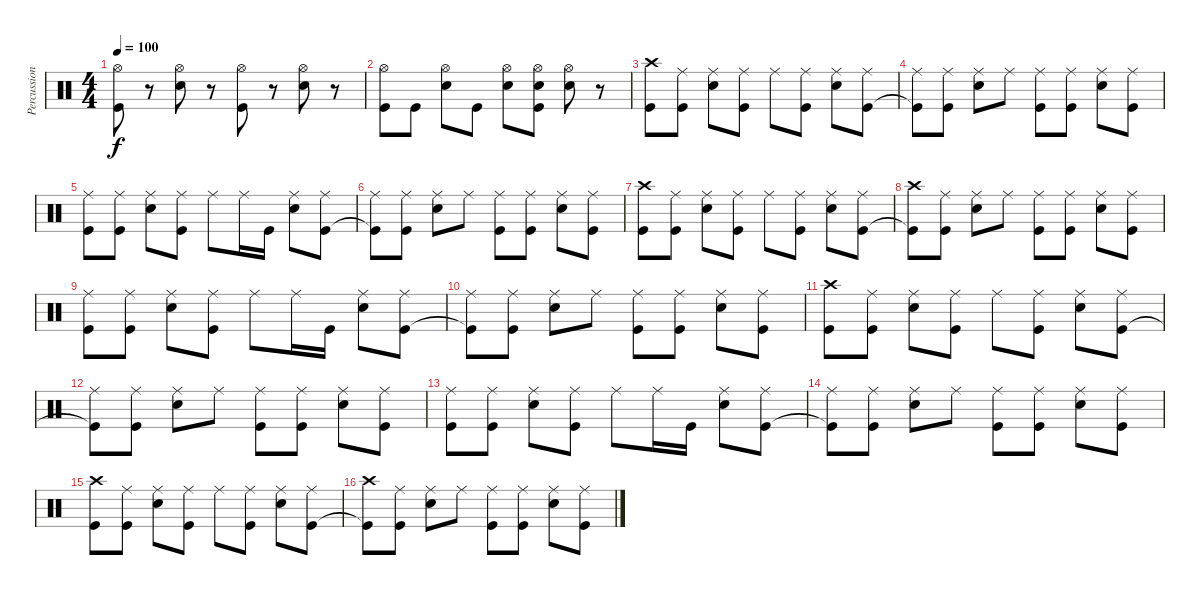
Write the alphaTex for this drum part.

\track ("Percussion" "Percussion") {instrument percussion}
\staff {score}
\articulation defaults
\ts (4 4)
\tempo 100
\clef neutral
\ks c
("Hi-Hat (open)" "Kick (hit)").8{dy f} r.8 ("Hi-Hat (open)" "Electric Snare (hit)").8 r.8 ("Hi-Hat (open)" "Kick (hit)").8 r.8 ("Hi-Hat (open)" "Electric Snare (hit)").8 r.8 |
("Hi-Hat (open)" "Kick (hit)").8 "Kick (hit)".8 ("Hi-Hat (open)" "Electric Snare (hit)").8 "Kick (hit)".8 ("Hi-Hat (open)" "Electric Snare (hit)").8 ("Hi-Hat (open)" "Electric Snare (hit)" "Kick (hit)").8 ("Hi-Hat (open)" "Electric Snare (hit)").8 r.8 |
("Crash high (hit)" "Kick (hit)").8 ("Ride (middle)" "Kick (hit)").8 ("Ride (middle)" "Electric Snare (hit)").8 ("Ride (middle)" "Kick (hit)").8 "Ride (middle)".8 ("Ride (middle)" "Kick (hit)").8 ("Ride (middle)" "Electric Snare (hit)").8 ("Ride (middle)" "Kick (hit)").8 |
("Ride (middle)" "Kick (hit)"{t}).8 ("Ride (middle)" "Kick (hit)").8 ("Ride (middle)" "Electric Snare (hit)").8 "Ride (middle)".8 ("Ride (middle)" "Kick (hit)").8 ("Ride (middle)" "Kick (hit)").8 ("Ride (middle)" "Electric Snare (hit)").8 ("Ride (middle)" "Kick (hit)").8 |
("Ride (middle)" "Kick (hit)").8 ("Ride (middle)" "Kick (hit)").8 ("Ride (middle)" "Electric Snare (hit)").8 ("Ride (middle)" "Kick (hit)").8 "Ride (middle)".8 "Ride (middle)".16 "Kick (hit)".16 ("Ride (middle)" "Electric Snare (hit)").8 ("Ride (middle)" "Kick (hit)").8 |
("Ride (middle)" "Kick (hit)"{t}).8 ("Ride (middle)" "Kick (hit)").8 ("Ride (middle)" "Electric Snare (hit)").8 "Ride (middle)".8 ("Ride (middle)" "Kick (hit)").8 ("Ride (middle)" "Kick (hit)").8 ("Ride (middle)" "Electric Snare (hit)").8 ("Ride (middle)" "Kick (hit)").8 |
("Crash high (hit)" "Kick (hit)").8 ("Ride (middle)" "Kick (hit)").8 ("Ride (middle)" "Electric Snare (hit)").8 ("Ride (middle)" "Kick (hit)").8 "Ride (middle)".8 ("Ride (middle)" "Kick (hit)").8 ("Ride (middle)" "Electric Snare (hit)").8 ("Ride (middle)" "Kick (hit)").8 |
("Crash high (hit)" "Kick (hit)"{t}).8 ("Ride (middle)" "Kick (hit)").8 ("Ride (middle)" "Electric Snare (hit)").8 "Ride (middle)".8 ("Ride (middle)" "Kick (hit)").8 ("Ride (middle)" "Kick (hit)").8 ("Ride (middle)" "Electric Snare (hit)").8 ("Ride (middle)" "Kick (hit)").8 |
("Ride (middle)" "Kick (hit)").8 ("Ride (middle)" "Kick (hit)").8 ("Ride (middle)" "Electric Snare (hit)").8 ("Ride (middle)" "Kick (hit)").8 "Ride (middle)".8 "Ride (middle)".16 "Kick (hit)".16 ("Ride (middle)" "Electric Snare (hit)").8 ("Ride (middle)" "Kick (hit)").8 |
("Ride (middle)" "Kick (hit)"{t}).8 ("Ride (middle)" "Kick (hit)").8 ("Ride (middle)" "Electric Snare (hit)").8 "Ride (middle)".8 ("Ride (middle)" "Kick (hit)").8 ("Ride (middle)" "Kick (hit)").8 ("Ride (middle)" "Electric Snare (hit)").8 ("Ride (middle)" "Kick (hit)").8 |
("Crash high (hit)" "Kick (hit)").8 ("Ride (middle)" "Kick (hit)").8 ("Ride (middle)" "Electric Snare (hit)").8 ("Ride (middle)" "Kick (hit)").8 "Ride (middle)".8 ("Ride (middle)" "Kick (hit)").8 ("Ride (middle)" "Electric Snare (hit)").8 ("Ride (middle)" "Kick (hit)").8 |
("Ride (middle)" "Kick (hit)"{t}).8 ("Ride (middle)" "Kick (hit)").8 ("Ride (middle)" "Electric Snare (hit)").8 "Ride (middle)".8 ("Ride (middle)" "Kick (hit)").8 ("Ride (middle)" "Kick (hit)").8 ("Ride (middle)" "Electric Snare (hit)").8 ("Ride (middle)" "Kick (hit)").8 |
("Ride (middle)" "Kick (hit)").8 ("Ride (middle)" "Kick (hit)").8 ("Ride (middle)" "Electric Snare (hit)").8 ("Ride (middle)" "Kick (hit)").8 "Ride (middle)".8 "Ride (middle)".16 "Kick (hit)".16 ("Ride (middle)" "Electric Snare (hit)").8 ("Ride (middle)" "Kick (hit)").8 |
("Ride (middle)" "Kick (hit)"{t}).8 ("Ride (middle)" "Kick (hit)").8 ("Ride (middle)" "Electric Snare (hit)").8 "Ride (middle)".8 ("Ride (middle)" "Kick (hit)").8 ("Ride (middle)" "Kick (hit)").8 ("Ride (middle)" "Electric Snare (hit)").8 ("Ride (middle)" "Kick (hit)").8 |
("Crash high (hit)" "Kick (hit)").8 ("Ride (middle)" "Kick (hit)").8 ("Ride (middle)" "Electric Snare (hit)").8 ("Ride (middle)" "Kick (hit)").8 "Ride (middle)".8 ("Ride (middle)" "Kick (hit)").8 ("Ride (middle)" "Electric Snare (hit)").8 ("Ride (middle)" "Kick (hit)").8 |
("Crash high (hit)" "Kick (hit)"{t}).8 ("Ride (middle)" "Kick (hit)").8 ("Ride (middle)" "Electric Snare (hit)").8 "Ride (middle)".8 ("Ride (middle)" "Kick (hit)").8 ("Ride (middle)" "Kick (hit)").8 ("Ride (middle)" "Electric Snare (hit)").8 ("Ride (middle)" "Kick (hit)").8
